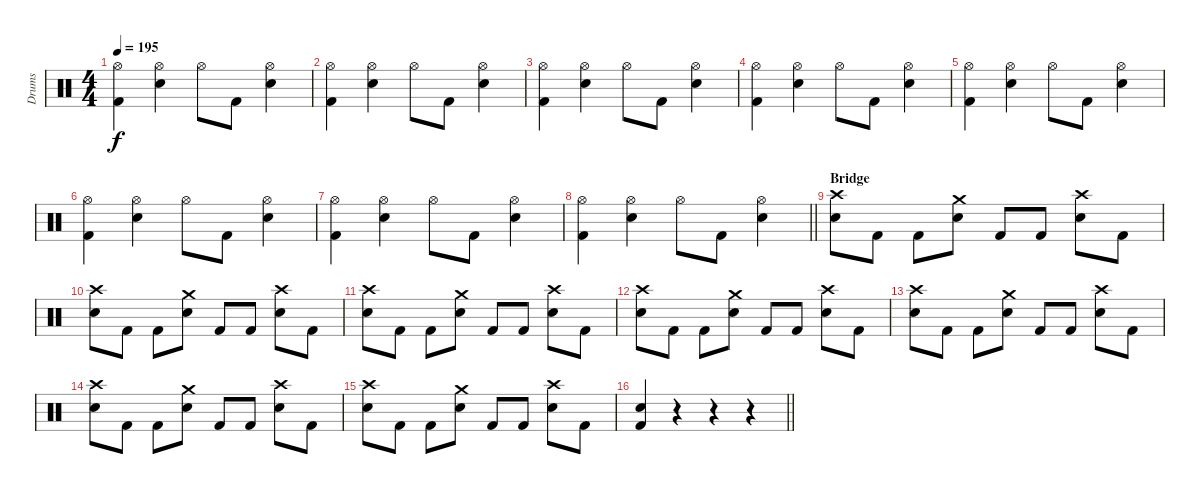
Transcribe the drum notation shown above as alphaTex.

\track ("Drums" "Drums") {instrument percussion}
\staff {score}
\articulation defaults
\ts (4 4)
\tempo 195
\clef neutral
\ks c
("Hi-Hat (open)" "Kick (hit) 2").4{dy f} ("Hi-Hat (open)" "Snare (hit) 2").4 "Hi-Hat (open)".8 "Kick (hit) 2".8 ("Hi-Hat (open)" "Snare (hit) 2").4 |
("Hi-Hat (open)" "Kick (hit) 2").4 ("Hi-Hat (open)" "Snare (hit) 2").4 "Hi-Hat (open)".8 "Kick (hit) 2".8 ("Hi-Hat (open)" "Snare (hit) 2").4 |
("Hi-Hat (open)" "Kick (hit) 2").4 ("Hi-Hat (open)" "Snare (hit) 2").4 "Hi-Hat (open)".8 "Kick (hit) 2".8 ("Hi-Hat (open)" "Snare (hit) 2").4 |
("Hi-Hat (open)" "Kick (hit) 2").4 ("Hi-Hat (open)" "Snare (hit) 2").4 "Hi-Hat (open)".8 "Kick (hit) 2".8 ("Hi-Hat (open)" "Snare (hit) 2").4 |
("Hi-Hat (open)" "Kick (hit) 2").4 ("Hi-Hat (open)" "Snare (hit) 2").4 "Hi-Hat (open)".8 "Kick (hit) 2".8 ("Hi-Hat (open)" "Snare (hit) 2").4 |
("Hi-Hat (open)" "Kick (hit) 2").4 ("Hi-Hat (open)" "Snare (hit) 2").4 "Hi-Hat (open)".8 "Kick (hit) 2".8 ("Hi-Hat (open)" "Snare (hit) 2").4 |
("Hi-Hat (open)" "Kick (hit) 2").4 ("Hi-Hat (open)" "Snare (hit) 2").4 "Hi-Hat (open)".8 "Kick (hit) 2".8 ("Hi-Hat (open)" "Snare (hit) 2").4 |
\barLineRight lightlight
("Hi-Hat (open)" "Kick (hit) 2").4 ("Hi-Hat (open)" "Snare (hit) 2").4 "Hi-Hat (open)".8 "Kick (hit) 2".8 ("Hi-Hat (open)" "Snare (hit) 2").4 |
\section ("" "Bridge")
("Crash high (hit)" "Snare (hit) 2").8 "Kick (hit) 2".8 "Kick (hit) 2".8 ("Crash medium (hit)" "Snare (hit) 2").8 "Kick (hit) 2".8 "Kick (hit) 2".8 ("Crash high (hit)" "Snare (hit) 2").8 "Kick (hit) 2".8 |
("Crash high (hit)" "Snare (hit) 2").8 "Kick (hit) 2".8 "Kick (hit) 2".8 ("Crash medium (hit)" "Snare (hit) 2").8 "Kick (hit) 2".8 "Kick (hit) 2".8 ("Crash high (hit)" "Snare (hit) 2").8 "Kick (hit) 2".8 |
("Crash high (hit)" "Snare (hit) 2").8 "Kick (hit) 2".8 "Kick (hit) 2".8 ("Crash medium (hit)" "Snare (hit) 2").8 "Kick (hit) 2".8 "Kick (hit) 2".8 ("Crash high (hit)" "Snare (hit) 2").8 "Kick (hit) 2".8 |
("Crash high (hit)" "Snare (hit) 2").8 "Kick (hit) 2".8 "Kick (hit) 2".8 ("Crash medium (hit)" "Snare (hit) 2").8 "Kick (hit) 2".8 "Kick (hit) 2".8 ("Crash high (hit)" "Snare (hit) 2").8 "Kick (hit) 2".8 |
("Crash high (hit)" "Snare (hit) 2").8 "Kick (hit) 2".8 "Kick (hit) 2".8 ("Crash medium (hit)" "Snare (hit) 2").8 "Kick (hit) 2".8 "Kick (hit) 2".8 ("Crash high (hit)" "Snare (hit) 2").8 "Kick (hit) 2".8 |
("Crash high (hit)" "Snare (hit) 2").8 "Kick (hit) 2".8 "Kick (hit) 2".8 ("Crash medium (hit)" "Snare (hit) 2").8 "Kick (hit) 2".8 "Kick (hit) 2".8 ("Crash high (hit)" "Snare (hit) 2").8 "Kick (hit) 2".8 |
("Crash high (hit)" "Snare (hit) 2").8 "Kick (hit) 2".8 "Kick (hit) 2".8 ("Crash medium (hit)" "Snare (hit) 2").8 "Kick (hit) 2".8 "Kick (hit) 2".8 ("Crash high (hit)" "Snare (hit) 2").8 "Kick (hit) 2".8 |
\barLineRight lightlight
("Snare (hit) 2" "Kick (hit) 2").4 r.4 r.4 r.4
